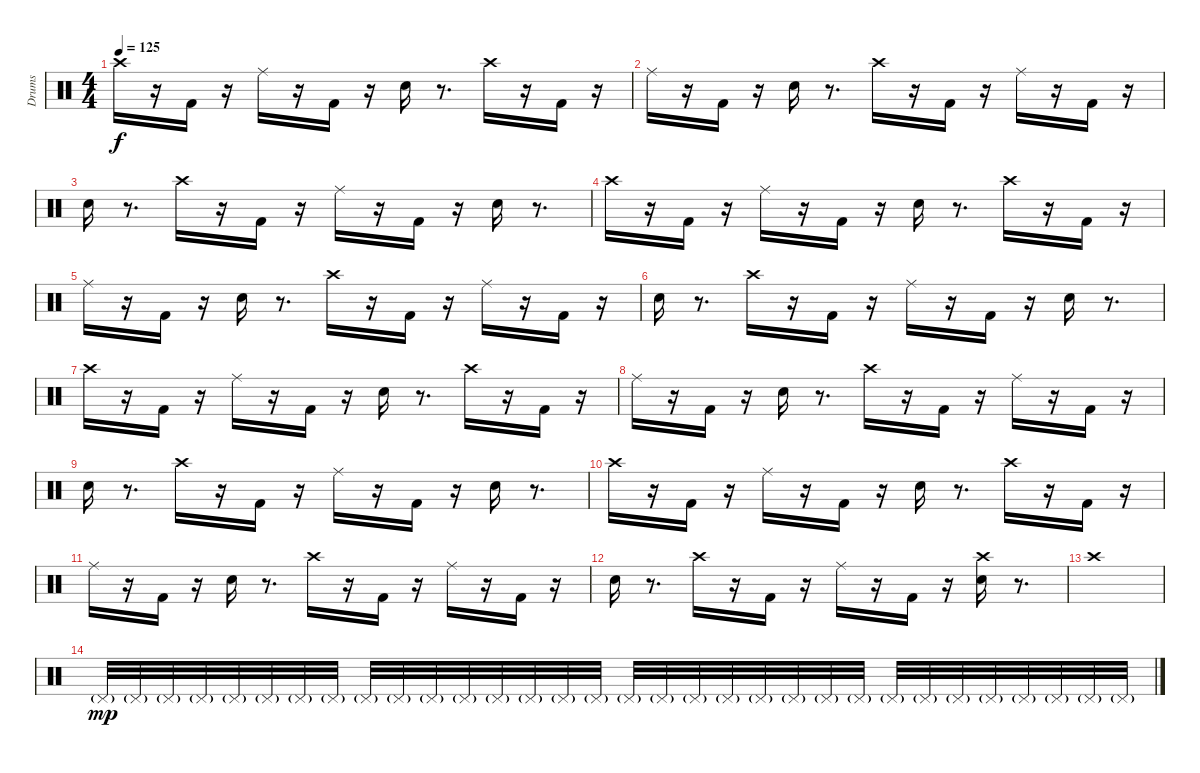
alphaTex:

\track ("Drums" "Drums") {instrument percussion}
\staff {score}
\articulation defaults
\ts (4 4)
\tempo 125
\clef neutral
\ks c "Crash high (hit)".16{dy f}
r.16 "Kick (hit) 2".16 r.16 "Ride (middle)".16 r.16 "Kick (hit) 2".16 r.16 "Snare (hit) 2".16 r.8{d} "Crash high (hit)".16 r.16 "Kick (hit) 2".16 r.16 |
"Ride (middle)".16 r.16 "Kick (hit) 2".16 r.16 "Snare (hit) 2".16 r.8{d} "Crash high (hit)".16 r.16 "Kick (hit) 2".16 r.16 "Ride (middle)".16 r.16 "Kick (hit) 2".16 r.16 |
"Snare (hit) 2".16 r.8{d} "Crash high (hit)".16 r.16 "Kick (hit) 2".16 r.16 "Ride (middle)".16 r.16 "Kick (hit) 2".16 r.16 "Snare (hit) 2".16 r.8{d} |
"Crash high (hit)".16 r.16 "Kick (hit) 2".16 r.16 "Ride (middle)".16 r.16 "Kick (hit) 2".16 r.16 "Snare (hit) 2".16 r.8{d} "Crash high (hit)".16 r.16 "Kick (hit) 2".16 r.16 |
"Ride (middle)".16 r.16 "Kick (hit) 2".16 r.16 "Snare (hit) 2".16 r.8{d} "Crash high (hit)".16 r.16 "Kick (hit) 2".16 r.16 "Ride (middle)".16 r.16 "Kick (hit) 2".16 r.16 |
"Snare (hit) 2".16 r.8{d} "Crash high (hit)".16 r.16 "Kick (hit) 2".16 r.16 "Ride (middle)".16 r.16 "Kick (hit) 2".16 r.16 "Snare (hit) 2".16 r.8{d} |
"Crash high (hit)".16 r.16 "Kick (hit) 2".16 r.16 "Ride (middle)".16 r.16 "Kick (hit) 2".16 r.16 "Snare (hit) 2".16 r.8{d} "Crash high (hit)".16 r.16 "Kick (hit) 2".16 r.16 |
"Ride (middle)".16 r.16 "Kick (hit) 2".16 r.16 "Snare (hit) 2".16 r.8{d} "Crash high (hit)".16 r.16 "Kick (hit) 2".16 r.16 "Ride (middle)".16 r.16 "Kick (hit) 2".16 r.16 |
"Snare (hit) 2".16 r.8{d} "Crash high (hit)".16 r.16 "Kick (hit) 2".16 r.16 "Ride (middle)".16 r.16 "Kick (hit) 2".16 r.16 "Snare (hit) 2".16 r.8{d} |
"Crash high (hit)".16 r.16 "Kick (hit) 2".16 r.16 "Ride (middle)".16 r.16 "Kick (hit) 2".16 r.16 "Snare (hit) 2".16 r.8{d} "Crash high (hit)".16 r.16 "Kick (hit) 2".16 r.16 |
"Ride (middle)".16 r.16 "Kick (hit) 2".16 r.16 "Snare (hit) 2".16 r.8{d} "Crash high (hit)".16 r.16 "Kick (hit) 2".16 r.16 "Ride (middle)".16 r.16 "Kick (hit) 2".16 r.16 |
"Snare (hit) 2".16 r.8{d} "Crash high (hit)".16 r.16 "Kick (hit) 2".16 r.16 "Ride (middle)".16 r.16 "Kick (hit) 2".16 r.16 ("Crash high (hit)" "Snare (hit) 2").16 r.8{d} |
"Crash high (hit)".1 |
"Pedal Hi-Hat (hit)"{g}.32{dy mp} "Pedal Hi-Hat (hit)"{g}.32 "Pedal Hi-Hat (hit)"{g}.32 "Pedal Hi-Hat (hit)"{g}.32 "Pedal Hi-Hat (hit)"{g}.32 "Pedal Hi-Hat (hit)"{g}.32 "Pedal Hi-Hat (hit)"{g}.32 "Pedal Hi-Hat (hit)"{g}.32 "Pedal Hi-Hat (hit)"{g}.32 "Pedal Hi-Hat (hit)"{g}.32 "Pedal Hi-Hat (hit)"{g}.32 "Pedal Hi-Hat (hit)"{g}.32 "Pedal Hi-Hat (hit)"{g}.32 "Pedal Hi-Hat (hit)"{g}.32 "Pedal Hi-Hat (hit)"{g}.32 "Pedal Hi-Hat (hit)"{g}.32 "Pedal Hi-Hat (hit)"{g}.32 "Pedal Hi-Hat (hit)"{g}.32 "Pedal Hi-Hat (hit)"{g}.32 "Pedal Hi-Hat (hit)"{g}.32 "Pedal Hi-Hat (hit)"{g}.32 "Pedal Hi-Hat (hit)"{g}.32 "Pedal Hi-Hat (hit)"{g}.32 "Pedal Hi-Hat (hit)"{g}.32 "Pedal Hi-Hat (hit)"{g}.32 "Pedal Hi-Hat (hit)"{g}.32 "Pedal Hi-Hat (hit)"{g}.32 "Pedal Hi-Hat (hit)"{g}.32 "Pedal Hi-Hat (hit)"{g}.32 "Pedal Hi-Hat (hit)"{g}.32 "Pedal Hi-Hat (hit)"{g}.32 "Pedal Hi-Hat (hit)"{g}.32
